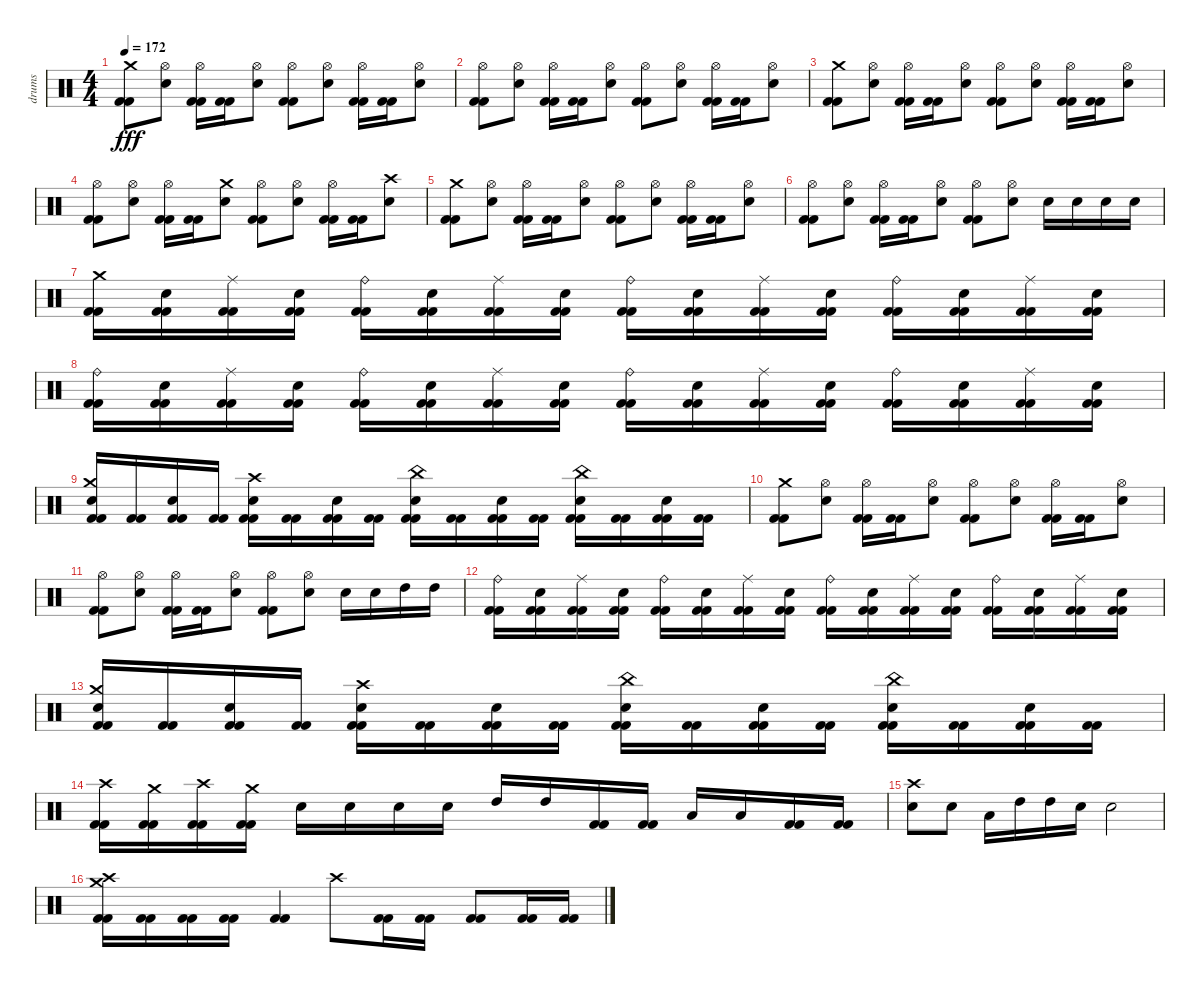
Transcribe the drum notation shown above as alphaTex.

\track ("drums" "drums") {instrument percussion}
\staff {score}
\articulation defaults
\ts (4 4)
\tempo 172
\clef neutral
\ks c
("Kick (hit) 2" "Kick (hit) 2" "Crash medium (hit)").8{dy fff} ("Electric Snare (hit)" "Hi-Hat (open)").8 ("Kick (hit) 2" "Kick (hit) 2" "Hi-Hat (open)").16 ("Kick (hit) 2" "Kick (hit) 2").16 ("Electric Snare (hit)" "Hi-Hat (open)").8 ("Kick (hit) 2" "Kick (hit) 2" "Hi-Hat (open)").8 ("Electric Snare (hit)" "Hi-Hat (open)").8 ("Kick (hit) 2" "Kick (hit) 2" "Hi-Hat (open)").16 ("Kick (hit) 2" "Kick (hit) 2").16 ("Electric Snare (hit)" "Hi-Hat (open)").8 |
("Kick (hit) 2" "Kick (hit) 2" "Hi-Hat (open)").8 ("Electric Snare (hit)" "Hi-Hat (open)").8 ("Kick (hit) 2" "Kick (hit) 2" "Hi-Hat (open)").16 ("Kick (hit) 2" "Kick (hit) 2").16 ("Electric Snare (hit)" "Hi-Hat (open)").8 ("Kick (hit) 2" "Kick (hit) 2" "Hi-Hat (open)").8 ("Electric Snare (hit)" "Hi-Hat (open)").8 ("Kick (hit) 2" "Kick (hit) 2" "Hi-Hat (open)").16 ("Kick (hit) 2" "Kick (hit) 2").16 ("Electric Snare (hit)" "Hi-Hat (open)").8 |
("Kick (hit) 2" "Kick (hit) 2" "Crash medium (hit)").8 ("Electric Snare (hit)" "Hi-Hat (open)").8 ("Kick (hit) 2" "Kick (hit) 2" "Hi-Hat (open)").16 ("Kick (hit) 2" "Kick (hit) 2").16 ("Electric Snare (hit)" "Hi-Hat (open)").8 ("Kick (hit) 2" "Kick (hit) 2" "Hi-Hat (open)").8 ("Electric Snare (hit)" "Hi-Hat (open)").8 ("Kick (hit) 2" "Kick (hit) 2" "Hi-Hat (open)").16 ("Kick (hit) 2" "Kick (hit) 2").16 ("Electric Snare (hit)" "Hi-Hat (open)").8 |
("Kick (hit) 2" "Kick (hit) 2" "Hi-Hat (open)").8 ("Electric Snare (hit)" "Hi-Hat (open)").8 ("Kick (hit) 2" "Kick (hit) 2" "Hi-Hat (open)").16 ("Kick (hit) 2" "Kick (hit) 2").16 ("Electric Snare (hit)" "Crash medium (hit)").8 ("Kick (hit) 2" "Kick (hit) 2" "Hi-Hat (open)").8 ("Electric Snare (hit)" "Hi-Hat (open)").8 ("Kick (hit) 2" "Kick (hit) 2" "Hi-Hat (open)").16 ("Kick (hit) 2" "Kick (hit) 2").16 ("Electric Snare (hit)" "Crash high (hit)").8 |
("Kick (hit) 2" "Kick (hit) 2" "Crash medium (hit)").8 ("Electric Snare (hit)" "Hi-Hat (open)").8 ("Kick (hit) 2" "Kick (hit) 2" "Hi-Hat (open)").16 ("Kick (hit) 2" "Kick (hit) 2").16 ("Electric Snare (hit)" "Hi-Hat (open)").8 ("Kick (hit) 2" "Kick (hit) 2" "Hi-Hat (open)").8 ("Electric Snare (hit)" "Hi-Hat (open)").8 ("Kick (hit) 2" "Kick (hit) 2" "Hi-Hat (open)").16 ("Kick (hit) 2" "Kick (hit) 2").16 ("Electric Snare (hit)" "Hi-Hat (open)").8 |
("Kick (hit) 2" "Kick (hit) 2" "Hi-Hat (open)").8 ("Electric Snare (hit)" "Hi-Hat (open)").8 ("Kick (hit) 2" "Kick (hit) 2" "Hi-Hat (open)").16 ("Kick (hit) 2" "Kick (hit) 2").16 ("Electric Snare (hit)" "Hi-Hat (open)").8 ("Kick (hit) 2" "Kick (hit) 2" "Hi-Hat (open)").8 ("Electric Snare (hit)" "Hi-Hat (open)").8 "Electric Snare (hit)".16 "Electric Snare (hit)".16 "Electric Snare (hit)".16 "Electric Snare (hit)".16 |
("Kick (hit) 2" "Kick (hit) 2" "Crash medium (hit)").16 ("Kick (hit) 2" "Kick (hit) 2" "Electric Snare (hit)").16 ("Kick (hit) 2" "Kick (hit) 2" "Ride (middle)").16 ("Kick (hit) 2" "Kick (hit) 2" "Electric Snare (hit)").16 ("Kick (hit) 2" "Kick (hit) 2" "Ride (bell)").16 ("Kick (hit) 2" "Kick (hit) 2" "Electric Snare (hit)").16 ("Kick (hit) 2" "Kick (hit) 2" "Ride (middle)").16 ("Kick (hit) 2" "Kick (hit) 2" "Electric Snare (hit)").16 ("Kick (hit) 2" "Kick (hit) 2" "Ride (bell)").16 ("Kick (hit) 2" "Kick (hit) 2" "Electric Snare (hit)").16 ("Kick (hit) 2" "Kick (hit) 2" "Ride (middle)").16 ("Kick (hit) 2" "Kick (hit) 2" "Electric Snare (hit)").16 ("Kick (hit) 2" "Kick (hit) 2" "Ride (bell)").16 ("Kick (hit) 2" "Kick (hit) 2" "Electric Snare (hit)").16 ("Kick (hit) 2" "Kick (hit) 2" "Ride (middle)").16 ("Kick (hit) 2" "Kick (hit) 2" "Electric Snare (hit)").16 |
("Kick (hit) 2" "Kick (hit) 2" "Ride (bell)").16 ("Kick (hit) 2" "Kick (hit) 2" "Electric Snare (hit)").16 ("Kick (hit) 2" "Kick (hit) 2" "Ride (middle)").16 ("Kick (hit) 2" "Kick (hit) 2" "Electric Snare (hit)").16 ("Kick (hit) 2" "Kick (hit) 2" "Ride (bell)").16 ("Kick (hit) 2" "Kick (hit) 2" "Electric Snare (hit)").16 ("Kick (hit) 2" "Kick (hit) 2" "Ride (middle)").16 ("Kick (hit) 2" "Kick (hit) 2" "Electric Snare (hit)").16 ("Kick (hit) 2" "Kick (hit) 2" "Ride (bell)").16 ("Kick (hit) 2" "Kick (hit) 2" "Electric Snare (hit)").16 ("Kick (hit) 2" "Kick (hit) 2" "Ride (middle)").16 ("Kick (hit) 2" "Kick (hit) 2" "Electric Snare (hit)").16 ("Kick (hit) 2" "Kick (hit) 2" "Ride (bell)").16 ("Kick (hit) 2" "Kick (hit) 2" "Electric Snare (hit)").16 ("Kick (hit) 2" "Kick (hit) 2" "Ride (middle)").16 ("Kick (hit) 2" "Kick (hit) 2" "Electric Snare (hit)").16 |
("Kick (hit) 2" "Kick (hit) 2" "Electric Snare (hit)" "Crash medium (hit)").16 ("Kick (hit) 2" "Kick (hit) 2").16 ("Kick (hit) 2" "Kick (hit) 2" "Electric Snare (hit)").16 ("Kick (hit) 2" "Kick (hit) 2").16 ("Kick (hit) 2" "Kick (hit) 2" "Electric Snare (hit)" "Crash high (hit)").16 ("Kick (hit) 2" "Kick (hit) 2").16 ("Kick (hit) 2" "Kick (hit) 2" "Electric Snare (hit)").16 ("Kick (hit) 2" "Kick (hit) 2").16 ("Kick (hit) 2" "Kick (hit) 2" "Electric Snare (hit)" "China (hit)").16 ("Kick (hit) 2" "Kick (hit) 2").16 ("Kick (hit) 2" "Kick (hit) 2" "Electric Snare (hit)").16 ("Kick (hit) 2" "Kick (hit) 2").16 ("Kick (hit) 2" "Kick (hit) 2" "Electric Snare (hit)" "China (hit)").16 ("Kick (hit) 2" "Kick (hit) 2").16 ("Kick (hit) 2" "Kick (hit) 2" "Electric Snare (hit)").16 ("Kick (hit) 2" "Kick (hit) 2").16 |
("Kick (hit) 2" "Kick (hit) 2" "Crash medium (hit)").8 ("Electric Snare (hit)" "Hi-Hat (open)").8 ("Kick (hit) 2" "Kick (hit) 2" "Hi-Hat (open)").16 ("Kick (hit) 2" "Kick (hit) 2").16 ("Electric Snare (hit)" "Hi-Hat (open)").8 ("Kick (hit) 2" "Kick (hit) 2" "Hi-Hat (open)").8 ("Electric Snare (hit)" "Hi-Hat (open)").8 ("Kick (hit) 2" "Kick (hit) 2" "Hi-Hat (open)").16 ("Kick (hit) 2" "Kick (hit) 2").16 ("Electric Snare (hit)" "Hi-Hat (open)").8 |
("Kick (hit) 2" "Kick (hit) 2" "Hi-Hat (open)").8 ("Electric Snare (hit)" "Hi-Hat (open)").8 ("Kick (hit) 2" "Kick (hit) 2" "Hi-Hat (open)").16 ("Kick (hit) 2" "Kick (hit) 2").16 ("Electric Snare (hit)" "Hi-Hat (open)").8 ("Kick (hit) 2" "Kick (hit) 2" "Hi-Hat (open)").8 ("Electric Snare (hit)" "Hi-Hat (open)").8 "Electric Snare (hit)".16 "Electric Snare (hit)".16 "High Tom (hit)".16 "High Tom (hit)".16 |
("Kick (hit) 2" "Kick (hit) 2" "Ride (bell)").16 ("Kick (hit) 2" "Kick (hit) 2" "Electric Snare (hit)").16 ("Kick (hit) 2" "Kick (hit) 2" "Ride (middle)").16 ("Kick (hit) 2" "Kick (hit) 2" "Electric Snare (hit)").16 ("Kick (hit) 2" "Kick (hit) 2" "Ride (bell)").16 ("Kick (hit) 2" "Kick (hit) 2" "Electric Snare (hit)").16 ("Kick (hit) 2" "Kick (hit) 2" "Ride (middle)").16 ("Kick (hit) 2" "Kick (hit) 2" "Electric Snare (hit)").16 ("Kick (hit) 2" "Kick (hit) 2" "Ride (bell)").16 ("Kick (hit) 2" "Kick (hit) 2" "Electric Snare (hit)").16 ("Kick (hit) 2" "Kick (hit) 2" "Ride (middle)").16 ("Kick (hit) 2" "Kick (hit) 2" "Electric Snare (hit)").16 ("Kick (hit) 2" "Kick (hit) 2" "Ride (bell)").16 ("Kick (hit) 2" "Kick (hit) 2" "Electric Snare (hit)").16 ("Kick (hit) 2" "Kick (hit) 2" "Ride (middle)").16 ("Kick (hit) 2" "Kick (hit) 2" "Electric Snare (hit)").16 |
("Kick (hit) 2" "Kick (hit) 2" "Electric Snare (hit)" "Crash medium (hit)").16 ("Kick (hit) 2" "Kick (hit) 2").16 ("Kick (hit) 2" "Kick (hit) 2" "Electric Snare (hit)").16 ("Kick (hit) 2" "Kick (hit) 2").16 ("Kick (hit) 2" "Kick (hit) 2" "Electric Snare (hit)" "Crash high (hit)").16 ("Kick (hit) 2" "Kick (hit) 2").16 ("Kick (hit) 2" "Kick (hit) 2" "Electric Snare (hit)").16 ("Kick (hit) 2" "Kick (hit) 2").16 ("Kick (hit) 2" "Kick (hit) 2" "Electric Snare (hit)" "China (hit)").16 ("Kick (hit) 2" "Kick (hit) 2").16 ("Kick (hit) 2" "Kick (hit) 2" "Electric Snare (hit)").16 ("Kick (hit) 2" "Kick (hit) 2").16 ("Kick (hit) 2" "Kick (hit) 2" "Electric Snare (hit)" "China (hit)").16 ("Kick (hit) 2" "Kick (hit) 2").16 ("Kick (hit) 2" "Kick (hit) 2" "Electric Snare (hit)").16 ("Kick (hit) 2" "Kick (hit) 2").16 |
("Kick (hit) 2" "Kick (hit) 2" "Crash high (hit)").16 ("Kick (hit) 2" "Kick (hit) 2" "Crash medium (hit)").16 ("Kick (hit) 2" "Kick (hit) 2" "Crash high (hit)").16 ("Kick (hit) 2" "Kick (hit) 2" "Crash medium (hit)").16 "Electric Snare (hit)".16 "Electric Snare (hit)".16 "Electric Snare (hit)".16 "Electric Snare (hit)".16 "High Tom (hit)".16 "High Tom (hit)".16 ("Kick (hit) 2" "Kick (hit) 2").16 ("Kick (hit) 2" "Kick (hit) 2").16 "Low Floor Tom (hit)".16 "Low Floor Tom (hit)".16 ("Kick (hit) 2" "Kick (hit) 2").16 ("Kick (hit) 2" "Kick (hit) 2").16 |
("Electric Snare (hit)" "Crash high (hit)").8 "Electric Snare (hit)".8 "Low Floor Tom (hit)".16 "High Tom (hit)".16 "High Tom (hit)".16 "Electric Snare (hit)".16 "Electric Snare (hit)".2 |
("Kick (hit) 2" "Kick (hit) 2" "Crash medium (hit)" "Crash high (hit)").16 ("Kick (hit) 2" "Kick (hit) 2").16 ("Kick (hit) 2" "Kick (hit) 2").16 ("Kick (hit) 2" "Kick (hit) 2").16 ("Kick (hit) 2" "Kick (hit) 2").4 "Crash high (hit)".8 ("Kick (hit) 2" "Kick (hit) 2").16 ("Kick (hit) 2" "Kick (hit) 2").16 ("Kick (hit) 2" "Kick (hit) 2").8 ("Kick (hit) 2" "Kick (hit) 2").16 ("Kick (hit) 2" "Kick (hit) 2").16
